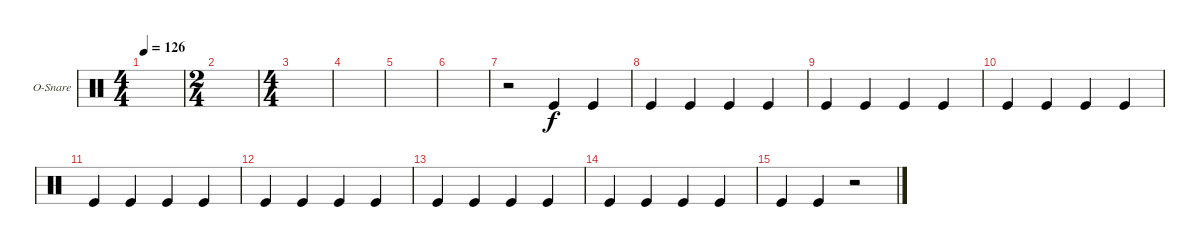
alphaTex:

\bracketExtendMode groupsimilarinstruments
\firstSystemTrackNameOrientation horizontal
\otherSystemsTrackNameOrientation horizontal
\track ("Snare" "O-Snare") {instrument percussion}
\staff {score}
\articulation defaults
\ts (4 4)
\tempo 126
\clef neutral
\scale
0.262911
\ks c
|
\ts (2 4)
\beaming (8 2 2)
\scale
0.474178 |
\ts (4 4)
\scale
0.474178 |
\scale
0.262911 |
\scale
0.262911 |
\scale
0.333333 |
\scale
0.333333 r.2 "Kick (hit)".4 "Kick (hit)".4 |
\scale
0.333333 "Kick (hit)".4 "Kick (hit)".4 "Kick (hit)".4 "Kick (hit)".4 |
\scale
0.333333 "Kick (hit)".4 "Kick (hit)".4 "Kick (hit)".4 "Kick (hit)".4 |
\scale
0.333333 "Kick (hit)".4 "Kick (hit)".4 "Kick (hit)".4 "Kick (hit)".4 |
\scale
0.333333 "Kick (hit)".4 "Kick (hit)".4 "Kick (hit)".4 "Kick (hit)".4 |
\scale
0.333333 "Kick (hit)".4 "Kick (hit)".4 "Kick (hit)".4 "Kick (hit)".4 |
\scale
0.333333 "Kick (hit)".4 "Kick (hit)".4 "Kick (hit)".4 "Kick (hit)".4 |
\scale
0.333333 "Kick (hit)".4 "Kick (hit)".4 "Kick (hit)".4 "Kick (hit)".4 |
"Kick (hit)".4 "Kick (hit)".4 r.2
